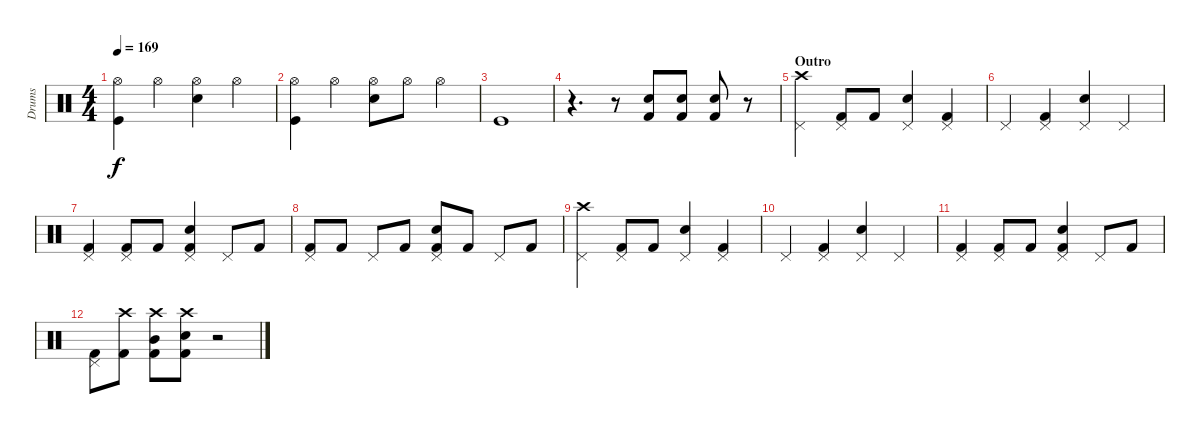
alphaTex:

\track ("Drums" "Drums") {instrument percussion}
\staff {score}
\articulation defaults
\ts (4 4)
\tempo 169
\clef neutral
\ks c
("Hi-Hat (open)" "Kick (hit)").4{dy f} "Hi-Hat (open)".4 ("Hi-Hat (open)" "Snare (hit) 2").4 "Hi-Hat (open)".4 |
("Hi-Hat (open)" "Kick (hit)").4 "Hi-Hat (open)".4 ("Hi-Hat (open)" "Snare (hit) 2").8 "Hi-Hat (open)".8 "Hi-Hat (open)".4 |
"Kick (hit)".1 |
r.4{d} r.8 ("Electric Snare (hit)" "Kick (hit) 2").8 ("Electric Snare (hit)" "Kick (hit) 2").8 ("Electric Snare (hit)" "Kick (hit) 2").8 r.8 |
\section ("" "Outro")
("Crash high (hit)" "Pedal Hi-Hat (hit)").4 ("Pedal Hi-Hat (hit)" "Kick (hit) 2").8 "Kick (hit) 2".8 ("Pedal Hi-Hat (hit)" "Snare (hit) 2").4 ("Pedal Hi-Hat (hit)" "Kick (hit) 2").4 |
"Pedal Hi-Hat (hit)".4 ("Pedal Hi-Hat (hit)" "Kick (hit) 2").4 ("Pedal Hi-Hat (hit)" "Snare (hit) 2").4 "Pedal Hi-Hat (hit)".4 |
("Pedal Hi-Hat (hit)" "Kick (hit) 2").4 ("Pedal Hi-Hat (hit)" "Kick (hit) 2").8 "Kick (hit) 2".8 ("Pedal Hi-Hat (hit)" "Snare (hit) 2" "Kick (hit) 2").4 "Pedal Hi-Hat (hit)".8 "Kick (hit) 2".8 |
("Pedal Hi-Hat (hit)" "Kick (hit) 2").8 "Kick (hit) 2".8 "Pedal Hi-Hat (hit)".8 "Kick (hit) 2".8 ("Pedal Hi-Hat (hit)" "Snare (hit) 2" "Kick (hit) 2").8 "Kick (hit) 2".8 "Pedal Hi-Hat (hit)".8 "Kick (hit) 2".8 |
("Crash high (hit)" "Pedal Hi-Hat (hit)").4 ("Pedal Hi-Hat (hit)" "Kick (hit) 2").8 "Kick (hit) 2".8 ("Pedal Hi-Hat (hit)" "Snare (hit) 2").4 ("Pedal Hi-Hat (hit)" "Kick (hit) 2").4 |
"Pedal Hi-Hat (hit)".4 ("Pedal Hi-Hat (hit)" "Kick (hit) 2").4 ("Pedal Hi-Hat (hit)" "Snare (hit) 2").4 "Pedal Hi-Hat (hit)".4 |
("Pedal Hi-Hat (hit)" "Kick (hit) 2").4 ("Pedal Hi-Hat (hit)" "Kick (hit) 2").8 "Kick (hit) 2".8 ("Pedal Hi-Hat (hit)" "Snare (hit) 2" "Kick (hit) 2").4 "Pedal Hi-Hat (hit)".8 "Kick (hit) 2".8 |
("Pedal Hi-Hat (hit)" "Kick (hit) 2").8 ("Crash high (hit)" "Kick (hit) 2").8 ("Crash high (hit)" "Mid Tom (hit)" "Kick (hit) 2").8 ("Crash high (hit)" "Snare (hit) 2" "Kick (hit) 2").8 r.2
